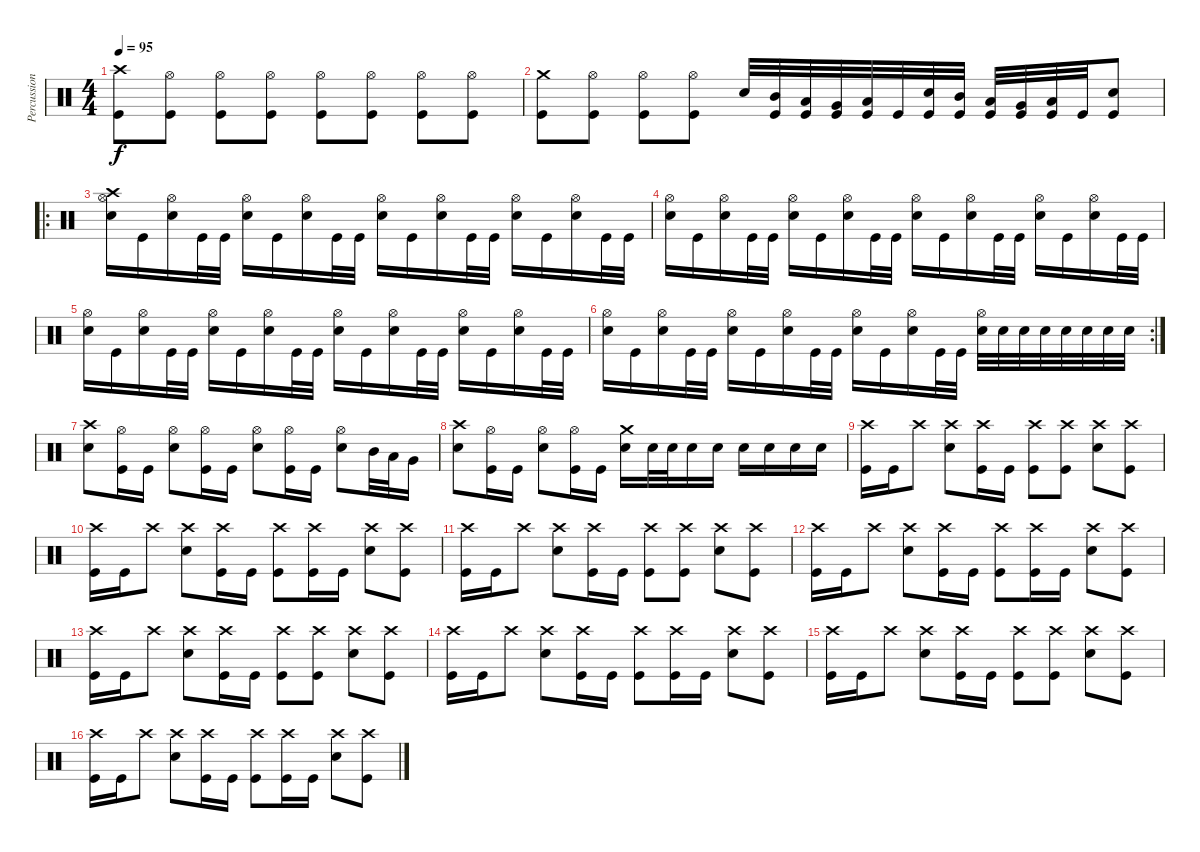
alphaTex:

\track ("Percussion" "Percussion") {instrument percussion}
\staff {score}
\articulation defaults
\ts (4 4)
\tempo 95
\clef neutral
\ks c
("Crash high (hit)" "Kick (hit)").8{dy f} ("Hi-Hat (open)" "Kick (hit)").8 ("Hi-Hat (open)" "Kick (hit)").8 ("Hi-Hat (open)" "Kick (hit)").8 ("Hi-Hat (open)" "Kick (hit)").8 ("Hi-Hat (open)" "Kick (hit)").8 ("Hi-Hat (open)" "Kick (hit)").8 ("Hi-Hat (open)" "Kick (hit)").8 |
("Crash medium (hit)" "Kick (hit)").8 ("Hi-Hat (open)" "Kick (hit)").8 ("Hi-Hat (open)" "Kick (hit)").8 ("Hi-Hat (open)" "Kick (hit)").8 "Snare (hit) 2".32 ("Mid Tom (hit)" "Kick (hit)").32 ("Low Tom (hit)" "Kick (hit)").32 ("Very Low Tom (hit)" "Kick (hit)").32 ("Low Tom (hit)" "Kick (hit)").32 "Kick (hit)".32 ("Snare (hit) 2" "Kick (hit)").32 ("Mid Tom (hit)" "Kick (hit)").32 ("Low Tom (hit)" "Kick (hit)").32 ("Very Low Tom (hit)" "Kick (hit)").32 ("Low Tom (hit)" "Kick (hit)").32 "Kick (hit)".32 ("Snare (hit) 2" "Kick (hit)").8 |
\ro
("Crash high (hit)" "Hi-Hat (open)" "Snare (hit) 2").16 "Kick (hit)".16 ("Hi-Hat (open)" "Snare (hit) 2").16 "Kick (hit)".32 "Kick (hit)".32 ("Hi-Hat (open)" "Snare (hit) 2").16 "Kick (hit)".16 ("Hi-Hat (open)" "Snare (hit) 2").16 "Kick (hit)".32 "Kick (hit)".32 ("Hi-Hat (open)" "Snare (hit) 2").16 "Kick (hit)".16 ("Hi-Hat (open)" "Snare (hit) 2").16 "Kick (hit)".32 "Kick (hit)".32 ("Hi-Hat (open)" "Snare (hit) 2").16 "Kick (hit)".16 ("Hi-Hat (open)" "Snare (hit) 2").16 "Kick (hit)".32 "Kick (hit)".32 |
("Hi-Hat (open)" "Snare (hit) 2").16 "Kick (hit)".16 ("Hi-Hat (open)" "Snare (hit) 2").16 "Kick (hit)".32 "Kick (hit)".32 ("Hi-Hat (open)" "Snare (hit) 2").16 "Kick (hit)".16 ("Hi-Hat (open)" "Snare (hit) 2").16 "Kick (hit)".32 "Kick (hit)".32 ("Hi-Hat (open)" "Snare (hit) 2").16 "Kick (hit)".16 ("Hi-Hat (open)" "Snare (hit) 2").16 "Kick (hit)".32 "Kick (hit)".32 ("Hi-Hat (open)" "Snare (hit) 2").16 "Kick (hit)".16 ("Hi-Hat (open)" "Snare (hit) 2").16 "Kick (hit)".32 "Kick (hit)".32 |
("Hi-Hat (open)" "Snare (hit) 2").16 "Kick (hit)".16 ("Hi-Hat (open)" "Snare (hit) 2").16 "Kick (hit)".32 "Kick (hit)".32 ("Hi-Hat (open)" "Snare (hit) 2").16 "Kick (hit)".16 ("Hi-Hat (open)" "Snare (hit) 2").16 "Kick (hit)".32 "Kick (hit)".32 ("Hi-Hat (open)" "Snare (hit) 2").16 "Kick (hit)".16 ("Hi-Hat (open)" "Snare (hit) 2").16 "Kick (hit)".32 "Kick (hit)".32 ("Hi-Hat (open)" "Snare (hit) 2").16 "Kick (hit)".16 ("Hi-Hat (open)" "Snare (hit) 2").16 "Kick (hit)".32 "Kick (hit)".32 |
\rc 2
("Hi-Hat (open)" "Snare (hit) 2").16 "Kick (hit)".16 ("Hi-Hat (open)" "Snare (hit) 2").16 "Kick (hit)".32 "Kick (hit)".32 ("Hi-Hat (open)" "Snare (hit) 2").16 "Kick (hit)".16 ("Hi-Hat (open)" "Snare (hit) 2").16 "Kick (hit)".32 "Kick (hit)".32 ("Hi-Hat (open)" "Snare (hit) 2").16 "Kick (hit)".16 ("Hi-Hat (open)" "Snare (hit) 2").16 "Kick (hit)".32 "Kick (hit)".32 ("Hi-Hat (open)" "Snare (hit) 2").32 "Snare (hit) 2".32 "Snare (hit) 2".32 "Snare (hit) 2".32 "Snare (hit) 2".32 "Snare (hit) 2".32 "Snare (hit) 2".32 "Snare (hit) 2".32 |
("Crash high (hit)" "Snare (hit) 2").8 ("Hi-Hat (open)" "Kick (hit)").16 "Kick (hit)".16 ("Hi-Hat (open)" "Snare (hit) 2").8 ("Hi-Hat (open)" "Kick (hit)").16 "Kick (hit)".16 ("Hi-Hat (open)" "Snare (hit) 2").8 ("Hi-Hat (open)" "Kick (hit)").16 "Kick (hit)".16 ("Hi-Hat (open)" "Snare (hit) 2").8 "Mid Tom (hit)".32 "Low Tom (hit)".32 "Very Low Tom (hit)".16 |
("Crash high (hit)" "Snare (hit) 2").8 ("Hi-Hat (open)" "Kick (hit)").16 "Kick (hit)".16 ("Hi-Hat (open)" "Snare (hit) 2").8 ("Hi-Hat (open)" "Kick (hit)").16 "Kick (hit)".16 ("Crash medium (hit)" "Snare (hit) 2").16 "Snare (hit) 2".32 "Snare (hit) 2".32 "Snare (hit) 2".16 "Snare (hit) 2".16 "Snare (hit) 2".16 "Snare (hit) 2".16 "Snare (hit) 2".16 "Snare (hit) 2".16 |
("Crash high (hit)" "Kick (hit)").16 "Kick (hit)".16 "Crash high (hit)".8 ("Crash high (hit)" "Snare (hit) 2").8 ("Crash high (hit)" "Kick (hit)").16 "Kick (hit)".16 ("Crash high (hit)" "Kick (hit)").8 ("Crash high (hit)" "Kick (hit)").8 ("Crash high (hit)" "Snare (hit) 2").8 ("Crash high (hit)" "Kick (hit)").8 |
("Crash high (hit)" "Kick (hit)").16 "Kick (hit)".16 "Crash high (hit)".8 ("Crash high (hit)" "Snare (hit) 2").8 ("Crash high (hit)" "Kick (hit)").16 "Kick (hit)".16 ("Crash high (hit)" "Kick (hit)").8 ("Crash high (hit)" "Kick (hit)").16 "Kick (hit)".16 ("Crash high (hit)" "Snare (hit) 2").8 ("Crash high (hit)" "Kick (hit)").8 |
("Crash high (hit)" "Kick (hit)").16 "Kick (hit)".16 "Crash high (hit)".8 ("Crash high (hit)" "Snare (hit) 2").8 ("Crash high (hit)" "Kick (hit)").16 "Kick (hit)".16 ("Crash high (hit)" "Kick (hit)").8 ("Crash high (hit)" "Kick (hit)").8 ("Crash high (hit)" "Snare (hit) 2").8 ("Crash high (hit)" "Kick (hit)").8 |
("Crash high (hit)" "Kick (hit)").16 "Kick (hit)".16 "Crash high (hit)".8 ("Crash high (hit)" "Snare (hit) 2").8 ("Crash high (hit)" "Kick (hit)").16 "Kick (hit)".16 ("Crash high (hit)" "Kick (hit)").8 ("Crash high (hit)" "Kick (hit)").16 "Kick (hit)".16 ("Crash high (hit)" "Snare (hit) 2").8 ("Crash high (hit)" "Kick (hit)").8 |
("Crash high (hit)" "Kick (hit)").16 "Kick (hit)".16 "Crash high (hit)".8 ("Crash high (hit)" "Snare (hit) 2").8 ("Crash high (hit)" "Kick (hit)").16 "Kick (hit)".16 ("Crash high (hit)" "Kick (hit)").8 ("Crash high (hit)" "Kick (hit)").8 ("Crash high (hit)" "Snare (hit) 2").8 ("Crash high (hit)" "Kick (hit)").8 |
("Crash high (hit)" "Kick (hit)").16 "Kick (hit)".16 "Crash high (hit)".8 ("Crash high (hit)" "Snare (hit) 2").8 ("Crash high (hit)" "Kick (hit)").16 "Kick (hit)".16 ("Crash high (hit)" "Kick (hit)").8 ("Crash high (hit)" "Kick (hit)").16 "Kick (hit)".16 ("Crash high (hit)" "Snare (hit) 2").8 ("Crash high (hit)" "Kick (hit)").8 |
("Crash high (hit)" "Kick (hit)").16 "Kick (hit)".16 "Crash high (hit)".8 ("Crash high (hit)" "Snare (hit) 2").8 ("Crash high (hit)" "Kick (hit)").16 "Kick (hit)".16 ("Crash high (hit)" "Kick (hit)").8 ("Crash high (hit)" "Kick (hit)").8 ("Crash high (hit)" "Snare (hit) 2").8 ("Crash high (hit)" "Kick (hit)").8 |
("Crash high (hit)" "Kick (hit)").16 "Kick (hit)".16 "Crash high (hit)".8 ("Crash high (hit)" "Snare (hit) 2").8 ("Crash high (hit)" "Kick (hit)").16 "Kick (hit)".16 ("Crash high (hit)" "Kick (hit)").8 ("Crash high (hit)" "Kick (hit)").16 "Kick (hit)".16 ("Crash high (hit)" "Snare (hit) 2").8 ("Crash high (hit)" "Kick (hit)").8
